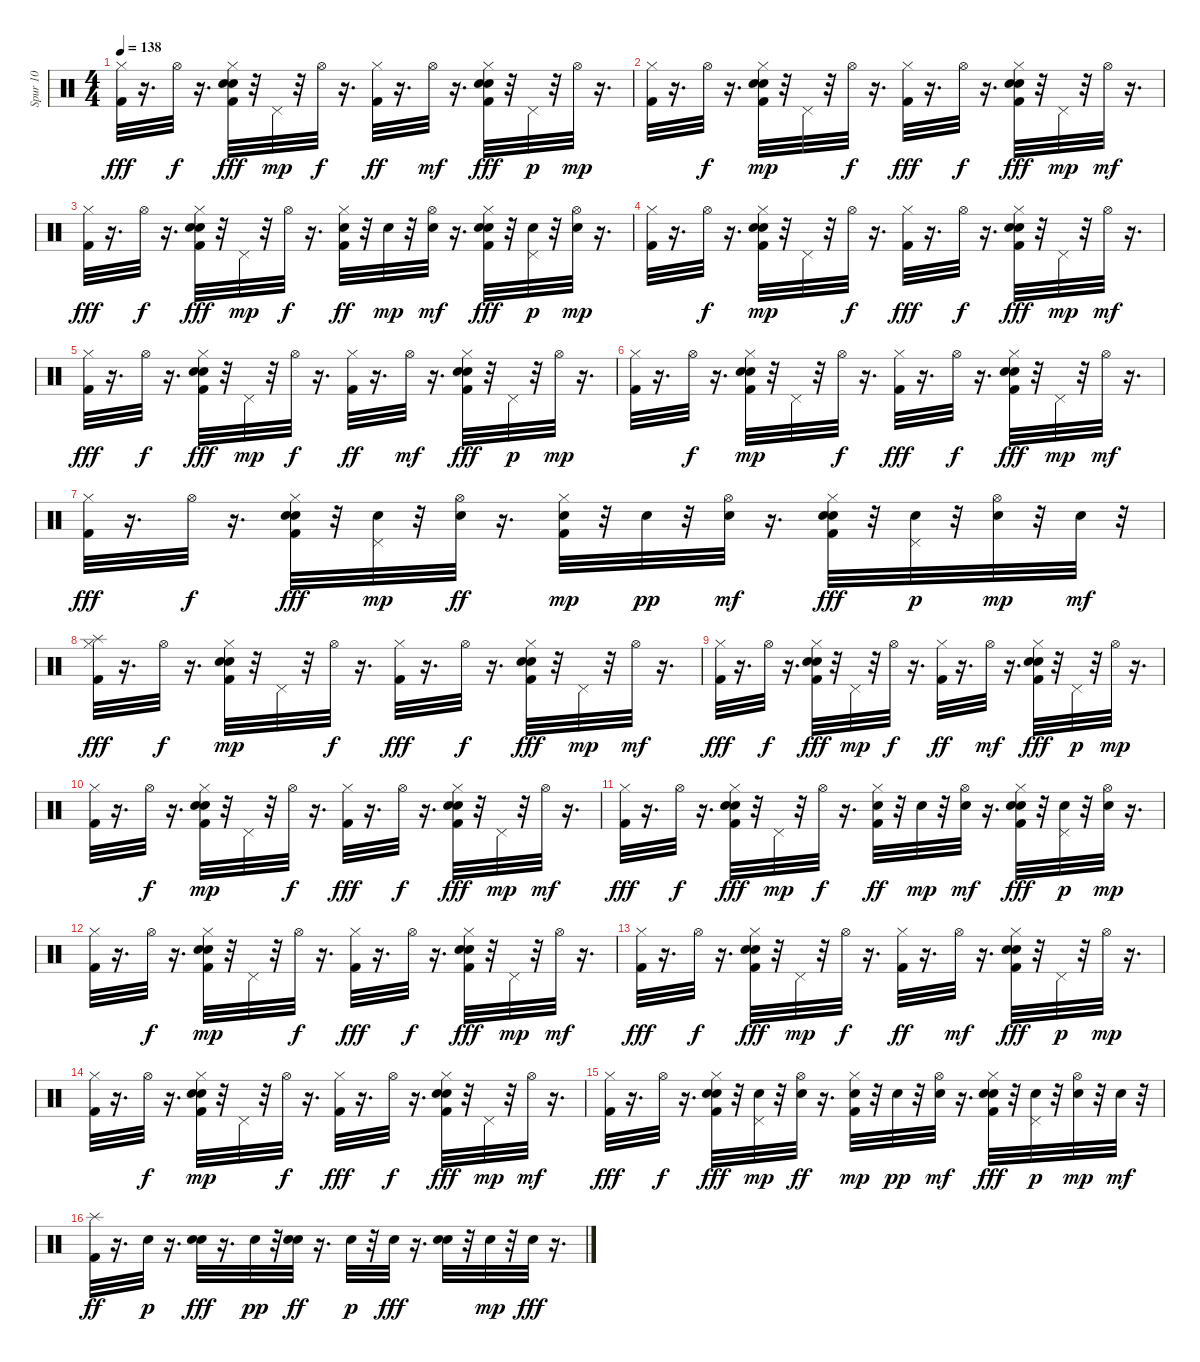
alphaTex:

\track ("Spur 10" "Spur 10") {instrument percussion}
\staff {score}
\articulation defaults
\ts (4 4)
\tempo 138
\clef neutral
\ks c
("Kick (hit) 2" "Hi-Hat (closed)").32{dy fff} r.16{d} "Hi-Hat (open)".32{dy f} r.16{d} ("Kick (hit) 2" "Snare (hit) 2" "Hand Clap (hit)" "Hi-Hat (closed)").32{dy fff} r.32 "Pedal Hi-Hat (hit)".32{dy mp} r.32 "Hi-Hat (open)".32{dy f} r.16{d} ("Kick (hit) 2" "Hi-Hat (closed)").32{dy ff} r.16{d} "Hi-Hat (open)".32{dy mf} r.16{d} ("Kick (hit) 2" "Snare (hit) 2" "Hand Clap (hit)" "Hi-Hat (closed)").32{dy fff} r.32 "Pedal Hi-Hat (hit)".32{dy p} r.32 "Hi-Hat (open)".32{dy mp} r.16{d} |
("Kick (hit) 2" "Hi-Hat (closed)").32 r.16{d} "Hi-Hat (open)".32{dy f} r.16{d} ("Kick (hit) 2" "Snare (hit) 2" "Hand Clap (hit)" "Hi-Hat (closed)").32{dy mp} r.32 "Pedal Hi-Hat (hit)".32 r.32 "Hi-Hat (open)".32{dy f} r.16{d} ("Kick (hit) 2" "Hi-Hat (closed)").32{dy fff} r.16{d} "Hi-Hat (open)".32{dy f} r.16{d} ("Kick (hit) 2" "Snare (hit) 2" "Hand Clap (hit)" "Hi-Hat (closed)").32{dy fff} r.32 "Pedal Hi-Hat (hit)".32{dy mp} r.32 "Hi-Hat (open)".32{dy mf} r.16{d} |
("Kick (hit) 2" "Hi-Hat (closed)").32{dy fff} r.16{d} "Hi-Hat (open)".32{dy f} r.16{d} ("Kick (hit) 2" "Snare (hit) 2" "Hand Clap (hit)" "Hi-Hat (closed)").32{dy fff} r.32 "Pedal Hi-Hat (hit)".32{dy mp} r.32 "Hi-Hat (open)".32{dy f} r.16{d} ("Kick (hit) 2" "Snare (hit) 2" "Hi-Hat (closed)").32{dy ff} r.32 "Snare (hit) 2".32{dy mp} r.32 ("Snare (hit) 2" "Hi-Hat (open)").32{dy mf} r.16{d} ("Kick (hit) 2" "Snare (hit) 2" "Hand Clap (hit)" "Hi-Hat (closed)").32{dy fff} r.32 ("Snare (hit) 2" "Pedal Hi-Hat (hit)").32{dy p} r.32 ("Snare (hit) 2" "Hi-Hat (open)").32{dy mp} r.16{d} |
("Kick (hit) 2" "Hi-Hat (closed)").32 r.16{d} "Hi-Hat (open)".32{dy f} r.16{d} ("Kick (hit) 2" "Snare (hit) 2" "Hand Clap (hit)" "Hi-Hat (closed)").32{dy mp} r.32 "Pedal Hi-Hat (hit)".32 r.32 "Hi-Hat (open)".32{dy f} r.16{d} ("Kick (hit) 2" "Hi-Hat (closed)").32{dy fff} r.16{d} "Hi-Hat (open)".32{dy f} r.16{d} ("Kick (hit) 2" "Snare (hit) 2" "Hand Clap (hit)" "Hi-Hat (closed)").32{dy fff} r.32 "Pedal Hi-Hat (hit)".32{dy mp} r.32 "Hi-Hat (open)".32{dy mf} r.16{d} |
("Kick (hit) 2" "Hi-Hat (closed)").32{dy fff} r.16{d} "Hi-Hat (open)".32{dy f} r.16{d} ("Kick (hit) 2" "Snare (hit) 2" "Hand Clap (hit)" "Hi-Hat (closed)").32{dy fff} r.32 "Pedal Hi-Hat (hit)".32{dy mp} r.32 "Hi-Hat (open)".32{dy f} r.16{d} ("Kick (hit) 2" "Hi-Hat (closed)").32{dy ff} r.16{d} "Hi-Hat (open)".32{dy mf} r.16{d} ("Kick (hit) 2" "Snare (hit) 2" "Hand Clap (hit)" "Hi-Hat (closed)").32{dy fff} r.32 "Pedal Hi-Hat (hit)".32{dy p} r.32 "Hi-Hat (open)".32{dy mp} r.16{d} |
("Kick (hit) 2" "Hi-Hat (closed)").32 r.16{d} "Hi-Hat (open)".32{dy f} r.16{d} ("Kick (hit) 2" "Snare (hit) 2" "Hand Clap (hit)" "Hi-Hat (closed)").32{dy mp} r.32 "Pedal Hi-Hat (hit)".32 r.32 "Hi-Hat (open)".32{dy f} r.16{d} ("Kick (hit) 2" "Hi-Hat (closed)").32{dy fff} r.16{d} "Hi-Hat (open)".32{dy f} r.16{d} ("Kick (hit) 2" "Snare (hit) 2" "Hand Clap (hit)" "Hi-Hat (closed)").32{dy fff} r.32 "Pedal Hi-Hat (hit)".32{dy mp} r.32 "Hi-Hat (open)".32{dy mf} r.16{d} |
("Kick (hit) 2" "Hi-Hat (closed)").32{dy fff} r.16{d} "Hi-Hat (open)".32{dy f} r.16{d} ("Kick (hit) 2" "Snare (hit) 2" "Hand Clap (hit)" "Hi-Hat (closed)").32{dy fff} r.32 ("Snare (hit) 2" "Pedal Hi-Hat (hit)").32{dy mp} r.32 ("Snare (hit) 2" "Hi-Hat (open)").32{dy ff} r.16{d} ("Kick (hit) 2" "Snare (hit) 2" "Hi-Hat (closed)").32{dy mp} r.32 "Snare (hit) 2".32{dy pp} r.32 ("Snare (hit) 2" "Hi-Hat (open)").32{dy mf} r.16{d} ("Kick (hit) 2" "Snare (hit) 2" "Hand Clap (hit)" "Hi-Hat (closed)").32{dy fff} r.32 ("Snare (hit) 2" "Pedal Hi-Hat (hit)").32{dy p} r.32 ("Snare (hit) 2" "Hi-Hat (open)").32{dy mp} r.32 "Snare (hit) 2".32{dy mf} r.32 |
("Kick (hit) 2" "Hi-Hat (closed)" "Splash (hit)").32{dy fff} r.16{d} "Hi-Hat (open)".32{dy f} r.16{d} ("Kick (hit) 2" "Snare (hit) 2" "Hand Clap (hit)" "Hi-Hat (closed)").32{dy mp} r.32 "Pedal Hi-Hat (hit)".32 r.32 "Hi-Hat (open)".32{dy f} r.16{d} ("Kick (hit) 2" "Hi-Hat (closed)").32{dy fff} r.16{d} "Hi-Hat (open)".32{dy f} r.16{d} ("Kick (hit) 2" "Snare (hit) 2" "Hand Clap (hit)" "Hi-Hat (closed)").32{dy fff} r.32 "Pedal Hi-Hat (hit)".32{dy mp} r.32 "Hi-Hat (open)".32{dy mf} r.16{d} |
("Kick (hit) 2" "Hi-Hat (closed)").32{dy fff} r.16{d} "Hi-Hat (open)".32{dy f} r.16{d} ("Kick (hit) 2" "Snare (hit) 2" "Hand Clap (hit)" "Hi-Hat (closed)").32{dy fff} r.32 "Pedal Hi-Hat (hit)".32{dy mp} r.32 "Hi-Hat (open)".32{dy f} r.16{d} ("Kick (hit) 2" "Hi-Hat (closed)").32{dy ff} r.16{d} "Hi-Hat (open)".32{dy mf} r.16{d} ("Kick (hit) 2" "Snare (hit) 2" "Hand Clap (hit)" "Hi-Hat (closed)").32{dy fff} r.32 "Pedal Hi-Hat (hit)".32{dy p} r.32 "Hi-Hat (open)".32{dy mp} r.16{d} |
("Kick (hit) 2" "Hi-Hat (closed)").32 r.16{d} "Hi-Hat (open)".32{dy f} r.16{d} ("Kick (hit) 2" "Snare (hit) 2" "Hand Clap (hit)" "Hi-Hat (closed)").32{dy mp} r.32 "Pedal Hi-Hat (hit)".32 r.32 "Hi-Hat (open)".32{dy f} r.16{d} ("Kick (hit) 2" "Hi-Hat (closed)").32{dy fff} r.16{d} "Hi-Hat (open)".32{dy f} r.16{d} ("Kick (hit) 2" "Snare (hit) 2" "Hand Clap (hit)" "Hi-Hat (closed)").32{dy fff} r.32 "Pedal Hi-Hat (hit)".32{dy mp} r.32 "Hi-Hat (open)".32{dy mf} r.16{d} |
("Kick (hit) 2" "Hi-Hat (closed)").32{dy fff} r.16{d} "Hi-Hat (open)".32{dy f} r.16{d} ("Kick (hit) 2" "Snare (hit) 2" "Hand Clap (hit)" "Hi-Hat (closed)").32{dy fff} r.32 "Pedal Hi-Hat (hit)".32{dy mp} r.32 "Hi-Hat (open)".32{dy f} r.16{d} ("Kick (hit) 2" "Snare (hit) 2" "Hi-Hat (closed)").32{dy ff} r.32 "Snare (hit) 2".32{dy mp} r.32 ("Snare (hit) 2" "Hi-Hat (open)").32{dy mf} r.16{d} ("Kick (hit) 2" "Snare (hit) 2" "Hand Clap (hit)" "Hi-Hat (closed)").32{dy fff} r.32 ("Snare (hit) 2" "Pedal Hi-Hat (hit)").32{dy p} r.32 ("Snare (hit) 2" "Hi-Hat (open)").32{dy mp} r.16{d} |
("Kick (hit) 2" "Hi-Hat (closed)").32 r.16{d} "Hi-Hat (open)".32{dy f} r.16{d} ("Kick (hit) 2" "Snare (hit) 2" "Hand Clap (hit)" "Hi-Hat (closed)").32{dy mp} r.32 "Pedal Hi-Hat (hit)".32 r.32 "Hi-Hat (open)".32{dy f} r.16{d} ("Kick (hit) 2" "Hi-Hat (closed)").32{dy fff} r.16{d} "Hi-Hat (open)".32{dy f} r.16{d} ("Kick (hit) 2" "Snare (hit) 2" "Hand Clap (hit)" "Hi-Hat (closed)").32{dy fff} r.32 "Pedal Hi-Hat (hit)".32{dy mp} r.32 "Hi-Hat (open)".32{dy mf} r.16{d} |
("Kick (hit) 2" "Hi-Hat (closed)").32{dy fff} r.16{d} "Hi-Hat (open)".32{dy f} r.16{d} ("Kick (hit) 2" "Snare (hit) 2" "Hand Clap (hit)" "Hi-Hat (closed)").32{dy fff} r.32 "Pedal Hi-Hat (hit)".32{dy mp} r.32 "Hi-Hat (open)".32{dy f} r.16{d} ("Kick (hit) 2" "Hi-Hat (closed)").32{dy ff} r.16{d} "Hi-Hat (open)".32{dy mf} r.16{d} ("Kick (hit) 2" "Snare (hit) 2" "Hand Clap (hit)" "Hi-Hat (closed)").32{dy fff} r.32 "Pedal Hi-Hat (hit)".32{dy p} r.32 "Hi-Hat (open)".32{dy mp} r.16{d} |
("Kick (hit) 2" "Hi-Hat (closed)").32 r.16{d} "Hi-Hat (open)".32{dy f} r.16{d} ("Kick (hit) 2" "Snare (hit) 2" "Hand Clap (hit)" "Hi-Hat (closed)").32{dy mp} r.32 "Pedal Hi-Hat (hit)".32 r.32 "Hi-Hat (open)".32{dy f} r.16{d} ("Kick (hit) 2" "Hi-Hat (closed)").32{dy fff} r.16{d} "Hi-Hat (open)".32{dy f} r.16{d} ("Kick (hit) 2" "Snare (hit) 2" "Hand Clap (hit)" "Hi-Hat (closed)").32{dy fff} r.32 "Pedal Hi-Hat (hit)".32{dy mp} r.32 "Hi-Hat (open)".32{dy mf} r.16{d} |
("Kick (hit) 2" "Hi-Hat (closed)").32{dy fff} r.16{d} "Hi-Hat (open)".32{dy f} r.16{d} ("Kick (hit) 2" "Snare (hit) 2" "Hand Clap (hit)" "Hi-Hat (closed)").32{dy fff} r.32 ("Snare (hit) 2" "Pedal Hi-Hat (hit)").32{dy mp} r.32 ("Snare (hit) 2" "Hi-Hat (open)").32{dy ff} r.16{d} ("Kick (hit) 2" "Snare (hit) 2" "Hi-Hat (closed)").32{dy mp} r.32 "Snare (hit) 2".32{dy pp} r.32 ("Snare (hit) 2" "Hi-Hat (open)").32{dy mf} r.16{d} ("Kick (hit) 2" "Snare (hit) 2" "Hand Clap (hit)" "Hi-Hat (closed)").32{dy fff} r.32 ("Snare (hit) 2" "Pedal Hi-Hat (hit)").32{dy p} r.32 ("Snare (hit) 2" "Hi-Hat (open)").32{dy mp} r.32 "Snare (hit) 2".32{dy mf} r.32 |
("Kick (hit) 2" "Splash (hit)").32{dy ff} r.16{d} "Metronome (bell)".32{dy p} r.16{d} ("Metronome (bell)" "Hand Clap (hit)").32{dy fff} r.16{d} "Metronome (bell)".32{dy pp} r.32 ("Metronome (bell)" "Hand Clap (hit)").32{dy ff} r.16{d} "Metronome (bell)".32{dy p} r.32 "Metronome (bell)".32{dy fff} r.16{d} ("Metronome (bell)" "Hand Clap (hit)").32 r.32 "Metronome (bell)".32{dy mp} r.32 "Metronome (bell)".32{dy fff} r.16{d}
